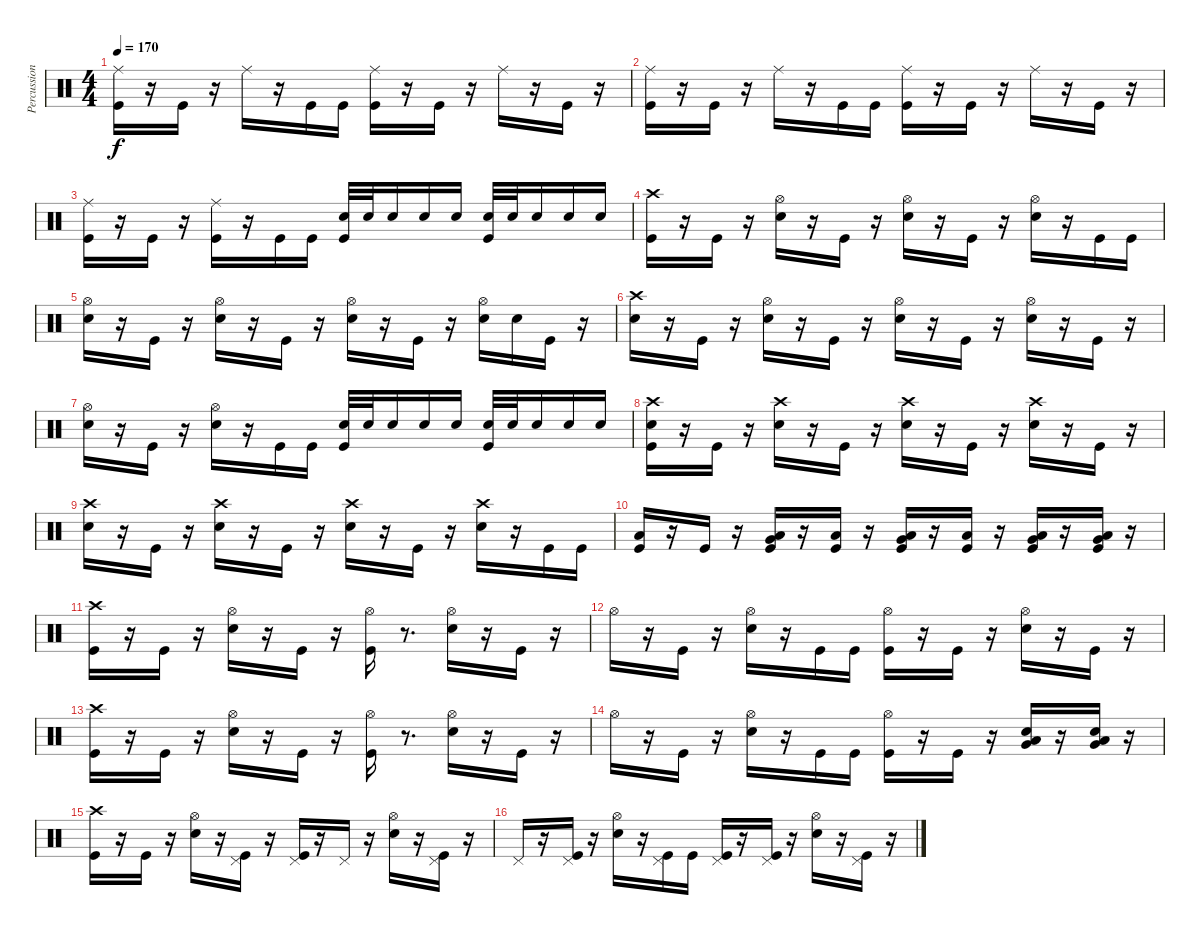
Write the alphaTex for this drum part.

\track ("Percussion" "Percussion") {instrument percussion}
\staff {score}
\articulation defaults
\ts (4 4)
\tempo 170
\clef neutral
\ks c
("Ride (middle)" "Kick (hit)").16{dy f} r.16 "Kick (hit)".16 r.16 "Ride (middle)".16 r.16 "Kick (hit)".16 "Kick (hit)".16 ("Ride (middle)" "Kick (hit)").16 r.16 "Kick (hit)".16 r.16 "Ride (middle)".16 r.16 "Kick (hit)".16 r.16 |
("Ride (middle)" "Kick (hit)").16 r.16 "Kick (hit)".16 r.16 "Ride (middle)".16 r.16 "Kick (hit)".16 "Kick (hit)".16 ("Ride (middle)" "Kick (hit)").16 r.16 "Kick (hit)".16 r.16 "Ride (middle)".16 r.16 "Kick (hit)".16 r.16 |
("Ride (middle)" "Kick (hit)").16 r.16 "Kick (hit)".16 r.16 ("Kick (hit)" "Ride (middle)").16 r.16 "Kick (hit)".16 "Kick (hit)".16 ("Electric Snare (hit)" "Kick (hit)").32 "Electric Snare (hit)".32 "Electric Snare (hit)".16 "Electric Snare (hit)".16 "Electric Snare (hit)".16 ("Kick (hit)" "Electric Snare (hit)").32 "Electric Snare (hit)".32 "Electric Snare (hit)".16 "Electric Snare (hit)".16 "Electric Snare (hit)".16 |
("Crash high (hit)" "Kick (hit)").16 r.16 "Kick (hit)".16 r.16 ("Hi-Hat (open)" "Electric Snare (hit)").16 r.16 "Kick (hit)".16 r.16 ("Electric Snare (hit)" "Hi-Hat (open)").16 r.16 "Kick (hit)".16 r.16 ("Hi-Hat (open)" "Electric Snare (hit)").16 r.16 "Kick (hit)".16 "Kick (hit)".16 |
("Electric Snare (hit)" "Hi-Hat (open)").16 r.16 "Kick (hit)".16 r.16 ("Hi-Hat (open)" "Electric Snare (hit)").16 r.16 "Kick (hit)".16 r.16 ("Electric Snare (hit)" "Hi-Hat (open)").16 r.16 "Kick (hit)".16 r.16 ("Hi-Hat (open)" "Electric Snare (hit)").16 "Electric Snare (hit)".16 "Kick (hit)".16 r.16 |
("Crash high (hit)" "Electric Snare (hit)").16 r.16 "Kick (hit)".16 r.16 ("Hi-Hat (open)" "Electric Snare (hit)").16 r.16 "Kick (hit)".16 r.16 ("Electric Snare (hit)" "Hi-Hat (open)").16 r.16 "Kick (hit)".16 r.16 ("Hi-Hat (open)" "Electric Snare (hit)").16 r.16 "Kick (hit)".16 r.16 |
("Electric Snare (hit)" "Hi-Hat (open)").16 r.16 "Kick (hit)".16 r.16 ("Hi-Hat (open)" "Electric Snare (hit)").16 r.16 "Kick (hit)".16 "Kick (hit)".16 ("Electric Snare (hit)" "Kick (hit)").32 "Electric Snare (hit)".32 "Electric Snare (hit)".16 "Electric Snare (hit)".16 "Electric Snare (hit)".16 ("Kick (hit)" "Electric Snare (hit)").32 "Electric Snare (hit)".32 "Electric Snare (hit)".16 "Electric Snare (hit)".16 "Electric Snare (hit)".16 |
("Electric Snare (hit)" "Crash high (hit)" "Kick (hit)").16 r.16 "Kick (hit)".16 r.16 ("Crash high (hit)" "Electric Snare (hit)").16 r.16 "Kick (hit)".16 r.16 ("Electric Snare (hit)" "Crash high (hit)").16 r.16 "Kick (hit)".16 r.16 ("Crash high (hit)" "Electric Snare (hit)").16 r.16 "Kick (hit)".16 r.16 |
("Crash high (hit)" "Electric Snare (hit)").16 r.16 "Kick (hit)".16 r.16 ("Crash high (hit)" "Electric Snare (hit)").16 r.16 "Kick (hit)".16 r.16 ("Electric Snare (hit)" "Crash high (hit)").16 r.16 "Kick (hit)".16 r.16 ("Crash high (hit)" "Electric Snare (hit)").16 r.16 "Kick (hit)".16 "Kick (hit)".16 |
("Low Floor Tom (hit)" "Kick (hit)").16 r.16 "Kick (hit)".16 r.16 ("Very Low Tom (hit)" "Low Floor Tom (hit)" "Kick (hit)").16 r.16 ("Low Floor Tom (hit)" "Kick (hit)").16 r.16 ("Very Low Tom (hit)" "Low Floor Tom (hit)" "Kick (hit)").16 r.16 ("Low Floor Tom (hit)" "Kick (hit)").16 r.16 ("Low Floor Tom (hit)" "Very Low Tom (hit)" "Kick (hit)").16 r.16 ("Low Floor Tom (hit)" "Very Low Tom (hit)" "Kick (hit)").16 r.16 |
("Crash high (hit)" "Kick (hit)").16 r.16 "Kick (hit)".16 r.16 ("Hi-Hat (open)" "Electric Snare (hit)").16 r.16 "Kick (hit)".16 r.16 ("Hi-Hat (open)" "Kick (hit)").16{volume 16} r.8{d} ("Hi-Hat (open)" "Electric Snare (hit)").16 r.16 "Kick (hit)".16{volume 16} r.16 |
"Hi-Hat (open)".16 r.16 "Kick (hit)".16 r.16 ("Hi-Hat (open)" "Electric Snare (hit)").16 r.16 "Kick (hit)".16{volume 16} "Kick (hit)".16 ("Hi-Hat (open)" "Kick (hit)").16 r.16 "Kick (hit)".16{volume 15} r.16 ("Hi-Hat (open)" "Electric Snare (hit)").16 r.16 "Kick (hit)".16{volume 15} r.16 |
("Crash high (hit)" "Kick (hit)").16{volume 15} r.16 "Kick (hit)".16{volume 15} r.16 ("Hi-Hat (open)" "Electric Snare (hit)").16{volume 15} r.16 "Kick (hit)".16{volume 14} r.16 ("Hi-Hat (open)" "Kick (hit)").16{volume 14} r.8{d} ("Hi-Hat (open)" "Electric Snare (hit)").16{volume 13} r.16 "Kick (hit)".16{volume 13} r.16 |
"Hi-Hat (open)".16{volume 12} r.16 "Kick (hit)".16{volume 12} r.16 ("Hi-Hat (open)" "Electric Snare (hit)").16{volume 11} r.16 "Kick (hit)".16{volume 11} "Kick (hit)".16{volume 11} ("Hi-Hat (open)" "Kick (hit)").16 r.16 "Kick (hit)".16{volume 10} r.16 ("Very Low Tom (hit)" "Low Floor Tom (hit)" "Electric Snare (hit)").16{volume 10} r.16 ("Very Low Tom (hit)" "Low Floor Tom (hit)" "Electric Snare (hit)").16{volume 10} r.16 |
("Crash high (hit)" "Kick (hit)").16{volume 10} r.16 "Kick (hit)".16{volume 9} r.16 ("Hi-Hat (open)" "Electric Snare (hit)").16{volume 9} r.16 ("Pedal Hi-Hat (hit)" "Kick (hit)").16{volume 9} r.16 ("Pedal Hi-Hat (hit)" "Kick (hit)").16{volume 8} r.16 "Pedal Hi-Hat (hit)".16{volume 8} r.16 ("Hi-Hat (open)" "Electric Snare (hit)").16{volume 8} r.16 ("Pedal Hi-Hat (hit)" "Kick (hit)").16{volume 7} r.16 |
"Pedal Hi-Hat (hit)".16{volume 7} r.16 ("Pedal Hi-Hat (hit)" "Kick (hit)").16{volume 6} r.16 ("Hi-Hat (open)" "Electric Snare (hit)").16{volume 6} r.16 ("Pedal Hi-Hat (hit)" "Kick (hit)").16{volume 6} "Kick (hit)".16{volume 5} ("Pedal Hi-Hat (hit)" "Kick (hit)").16{volume 5} r.16 ("Pedal Hi-Hat (hit)" "Kick (hit)").16{volume 4} r.16 ("Hi-Hat (open)" "Electric Snare (hit)").16{volume 4} r.16 ("Pedal Hi-Hat (hit)" "Kick (hit)").16{volume 3} r.16
